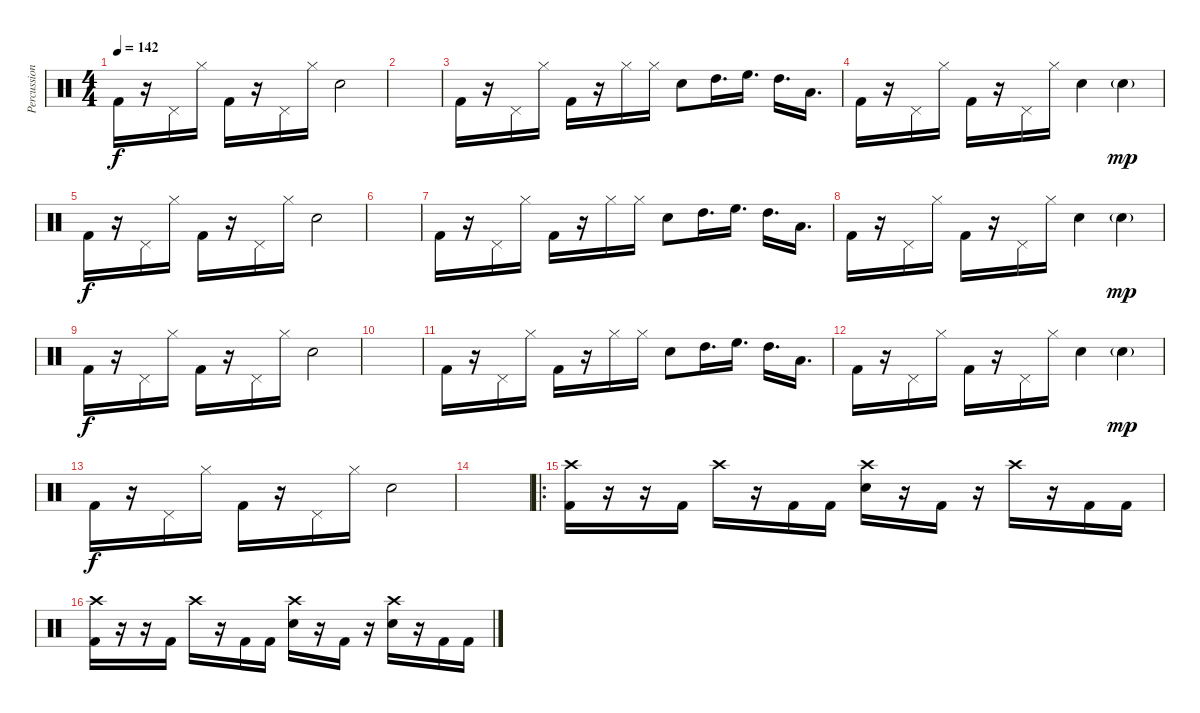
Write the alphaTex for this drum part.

\track ("Percussion" "Percussion") {instrument percussion}
\staff {score}
\articulation defaults
\ts (4 4)
\tempo 142
\clef neutral
\ks c "Kick (hit) 2".16{dy f}
r.16 "Pedal Hi-Hat (hit)".16 "Hi-Hat (closed)".16 "Kick (hit) 2".16 r.16 "Pedal Hi-Hat (hit)".16 "Hi-Hat (closed)".16 "Snare (hit) 2".2 |
|
"Kick (hit) 2".16 r.16 "Pedal Hi-Hat (hit)".16 "Hi-Hat (closed)".16 "Kick (hit) 2".16 r.16 "Hi-Hat (closed)".16 "Hi-Hat (closed)".16 "Snare (hit) 2".8 "High Tom (hit)".16{d} "High Floor Tom (hit)".16{d} "High Tom (hit)".16{d} "Low Tom (hit)".16{d} |
"Kick (hit) 2".16 r.16 "Pedal Hi-Hat (hit)".16 "Hi-Hat (closed)".16 "Kick (hit) 2".16 r.16 "Pedal Hi-Hat (hit)".16 "Hi-Hat (closed)".16 "Snare (hit) 2".4 "Snare (hit) 2"{g}.4{dy mp} |
"Kick (hit) 2".16{dy f} r.16 "Pedal Hi-Hat (hit)".16 "Hi-Hat (closed)".16 "Kick (hit) 2".16 r.16 "Pedal Hi-Hat (hit)".16 "Hi-Hat (closed)".16 "Snare (hit) 2".2 |
|
"Kick (hit) 2".16 r.16 "Pedal Hi-Hat (hit)".16 "Hi-Hat (closed)".16 "Kick (hit) 2".16 r.16 "Hi-Hat (closed)".16 "Hi-Hat (closed)".16 "Snare (hit) 2".8 "High Tom (hit)".16{d} "High Floor Tom (hit)".16{d} "High Tom (hit)".16{d} "Low Tom (hit)".16{d} |
"Kick (hit) 2".16 r.16 "Pedal Hi-Hat (hit)".16 "Hi-Hat (closed)".16 "Kick (hit) 2".16 r.16 "Pedal Hi-Hat (hit)".16 "Hi-Hat (closed)".16 "Snare (hit) 2".4 "Snare (hit) 2"{g}.4{dy mp} |
"Kick (hit) 2".16{dy f} r.16 "Pedal Hi-Hat (hit)".16 "Hi-Hat (closed)".16 "Kick (hit) 2".16 r.16 "Pedal Hi-Hat (hit)".16 "Hi-Hat (closed)".16 "Snare (hit) 2".2 |
|
"Kick (hit) 2".16 r.16 "Pedal Hi-Hat (hit)".16 "Hi-Hat (closed)".16 "Kick (hit) 2".16 r.16 "Hi-Hat (closed)".16 "Hi-Hat (closed)".16 "Snare (hit) 2".8 "High Tom (hit)".16{d} "High Floor Tom (hit)".16{d} "High Tom (hit)".16{d} "Low Tom (hit)".16{d} |
"Kick (hit) 2".16 r.16 "Pedal Hi-Hat (hit)".16 "Hi-Hat (closed)".16 "Kick (hit) 2".16 r.16 "Pedal Hi-Hat (hit)".16 "Hi-Hat (closed)".16 "Snare (hit) 2".4 "Snare (hit) 2"{g}.4{dy mp} |
"Kick (hit) 2".16{dy f} r.16 "Pedal Hi-Hat (hit)".16 "Hi-Hat (closed)".16 "Kick (hit) 2".16 r.16 "Pedal Hi-Hat (hit)".16 "Hi-Hat (closed)".16 "Snare (hit) 2".2 |
|
\ro
("Crash high (hit)" "Kick (hit) 2").16 r.16 r.16 "Kick (hit) 2".16 "Crash high (hit)".16 r.16 "Kick (hit) 2".16 "Kick (hit) 2".16 ("Crash high (hit)" "Snare (hit) 2").16 r.16 "Kick (hit) 2".16 r.16 "Crash high (hit)".16 r.16 "Kick (hit) 2".16 "Kick (hit) 2".16 |
("Crash high (hit)" "Kick (hit) 2").16 r.16 r.16 "Kick (hit) 2".16 "Crash high (hit)".16 r.16 "Kick (hit) 2".16 "Kick (hit) 2".16 ("Crash high (hit)" "Snare (hit) 2").16 r.16 "Kick (hit) 2".16 r.16 ("Crash high (hit)" "Snare (hit) 2").16 r.16 "Kick (hit) 2".16 "Kick (hit) 2".16
